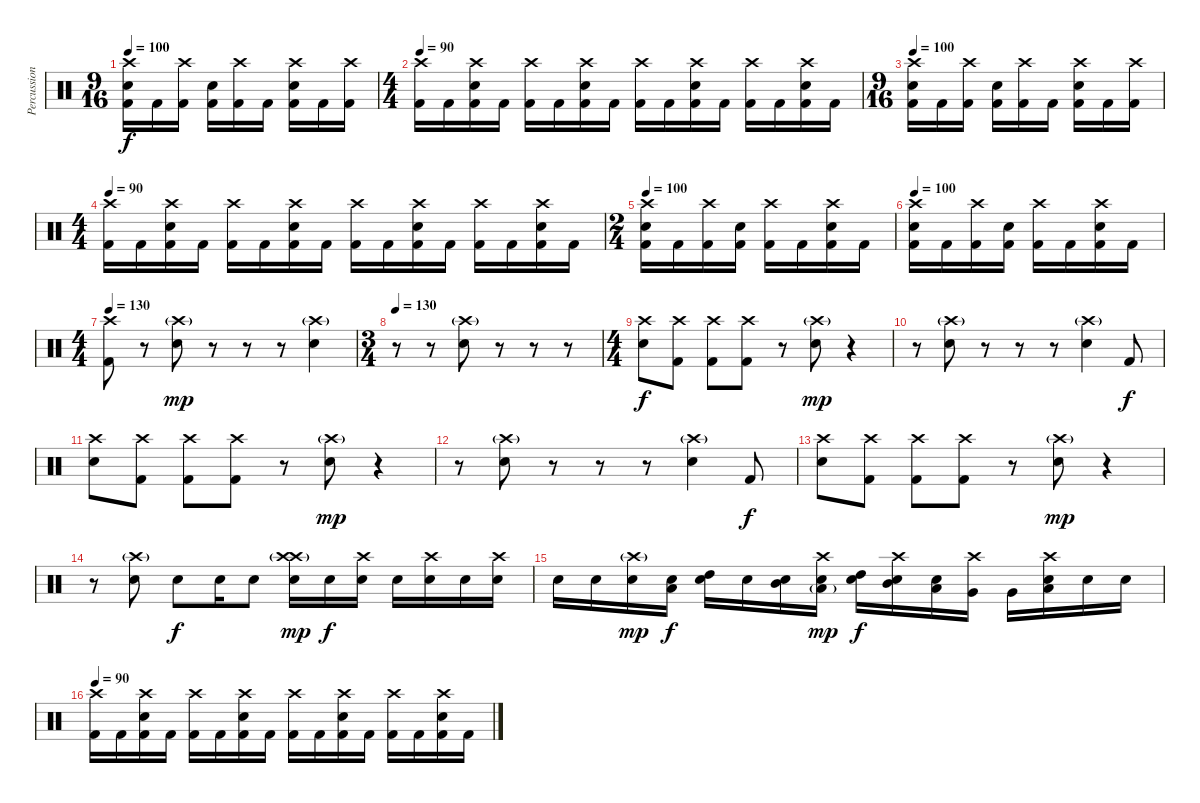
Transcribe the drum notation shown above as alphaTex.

\track ("Percussion" "Percussion") {instrument percussion}
\staff {score}
\articulation defaults
\ts (9 16)
\tempo 100
\clef neutral
\ks c
("Crash high (hit)" "Snare (hit) 2" "Kick (hit) 2").16{dy f} "Kick (hit) 2".16 ("Crash high (hit)" "Kick (hit) 2").16 ("Snare (hit) 2" "Kick (hit) 2").16 ("Crash high (hit)" "Kick (hit) 2").16 "Kick (hit) 2".16 ("Crash high (hit)" "Snare (hit) 2" "Kick (hit) 2").16 "Kick (hit) 2".16 ("Crash high (hit)" "Kick (hit) 2").16 |
\ts (4 4)
\tempo 90
("Crash high (hit)" "Kick (hit) 2").16 "Kick (hit) 2".16 ("Crash high (hit)" "Snare (hit) 2" "Kick (hit) 2").16 "Kick (hit) 2".16 ("Crash high (hit)" "Kick (hit) 2").16 "Kick (hit) 2".16 ("Crash high (hit)" "Snare (hit) 2" "Kick (hit) 2").16 "Kick (hit) 2".16 ("Crash high (hit)" "Kick (hit) 2").16 "Kick (hit) 2".16 ("Crash high (hit)" "Snare (hit) 2" "Kick (hit) 2").16 "Kick (hit) 2".16 ("Crash high (hit)" "Kick (hit) 2").16 "Kick (hit) 2".16 ("Crash high (hit)" "Snare (hit) 2" "Kick (hit) 2").16 "Kick (hit) 2".16 |
\ts (9 16)
\tempo 100
("Crash high (hit)" "Snare (hit) 2" "Kick (hit) 2").16 "Kick (hit) 2".16 ("Crash high (hit)" "Kick (hit) 2").16 ("Snare (hit) 2" "Kick (hit) 2").16 ("Crash high (hit)" "Kick (hit) 2").16 "Kick (hit) 2".16 ("Crash high (hit)" "Snare (hit) 2" "Kick (hit) 2").16 "Kick (hit) 2".16 ("Crash high (hit)" "Kick (hit) 2").16 |
\ts (4 4)
\tempo 90
("Crash high (hit)" "Kick (hit) 2").16 "Kick (hit) 2".16 ("Crash high (hit)" "Snare (hit) 2" "Kick (hit) 2").16 "Kick (hit) 2".16 ("Crash high (hit)" "Kick (hit) 2").16 "Kick (hit) 2".16 ("Crash high (hit)" "Snare (hit) 2" "Kick (hit) 2").16 "Kick (hit) 2".16 ("Crash high (hit)" "Kick (hit) 2").16 "Kick (hit) 2".16 ("Crash high (hit)" "Snare (hit) 2" "Kick (hit) 2").16 "Kick (hit) 2".16 ("Crash high (hit)" "Kick (hit) 2").16 "Kick (hit) 2".16 ("Crash high (hit)" "Snare (hit) 2" "Kick (hit) 2").16 "Kick (hit) 2".16 |
\ts (2 4)
\tempo 100
("Crash high (hit)" "Snare (hit) 2" "Kick (hit) 2").16 "Kick (hit) 2".16 ("Crash high (hit)" "Kick (hit) 2").16 ("Snare (hit) 2" "Kick (hit) 2").16 ("Crash high (hit)" "Kick (hit) 2").16 "Kick (hit) 2".16 ("Crash high (hit)" "Snare (hit) 2" "Kick (hit) 2").16 "Kick (hit) 2".16 |
\tempo 100
("Crash high (hit)" "Snare (hit) 2" "Kick (hit) 2").16 "Kick (hit) 2".16 ("Crash high (hit)" "Kick (hit) 2").16 ("Snare (hit) 2" "Kick (hit) 2").16 ("Crash high (hit)" "Kick (hit) 2").16 "Kick (hit) 2".16 ("Crash high (hit)" "Snare (hit) 2" "Kick (hit) 2").16 "Kick (hit) 2".16 |
\ts (4 4)
\tempo 130
("Crash high (hit)" "Kick (hit) 2").8 r.8 ("Snare (hit) 2" "Crash high (hit)"{g}).8{dy mp} r.8 r.8 r.8 ("Snare (hit) 2" "Crash high (hit)"{g}).4 |
\ts (3 4)
\tempo 130
r.8 r.8 ("Snare (hit) 2" "Crash high (hit)"{g}).8 r.8 r.8 r.8 |
\ts (4 4)
("Crash high (hit)" "Snare (hit) 2").8{dy f} ("Crash high (hit)" "Kick (hit) 2").8 ("Crash high (hit)" "Kick (hit) 2").8 ("Crash high (hit)" "Kick (hit) 2").8 r.8 ("Crash high (hit)"{g} "Snare (hit) 2").8{dy mp} r.4 |
r.8 ("Crash high (hit)"{g} "Snare (hit) 2").8 r.8 r.8 r.8 ("Crash high (hit)"{g} "Snare (hit) 2").4 "Kick (hit) 2".8{dy f} |
("Crash high (hit)" "Snare (hit) 2").8 ("Crash high (hit)" "Kick (hit) 2").8 ("Crash high (hit)" "Kick (hit) 2").8 ("Crash high (hit)" "Kick (hit) 2").8 r.8 ("Crash high (hit)"{g} "Snare (hit) 2").8{dy mp} r.4 |
r.8 ("Crash high (hit)"{g} "Snare (hit) 2").8 r.8 r.8 r.8 ("Crash high (hit)"{g} "Snare (hit) 2").4 "Kick (hit) 2".8{dy f} |
("Crash high (hit)" "Snare (hit) 2").8 ("Crash high (hit)" "Kick (hit) 2").8 ("Crash high (hit)" "Kick (hit) 2").8 ("Crash high (hit)" "Kick (hit) 2").8 r.8 ("Crash high (hit)"{g} "Snare (hit) 2").8{dy mp} r.4 |
r.8 ("Crash high (hit)"{g} "Snare (hit) 2").8 "Snare (hit) 2".8{dy f} "Snare (hit) 2".16 "Snare (hit) 2".8 ("Crash high (hit)" "Crash high (hit)"{g} "Snare (hit) 2").16{dy mp} "Snare (hit) 2".16{dy f} ("Crash high (hit)" "Snare (hit) 2").16 "Snare (hit) 2".16 ("Crash high (hit)" "Snare (hit) 2").16 "Snare (hit) 2".16 ("Crash high (hit)" "Snare (hit) 2").16 |
"Snare (hit) 2".16 "Snare (hit) 2".16 ("Crash high (hit)"{g} "Snare (hit) 2").16{dy mp} ("Snare (hit) 2" "Low Tom (hit)").16{dy f} ("High Tom (hit)" "Snare (hit) 2").16 "Snare (hit) 2".16 ("Mid Tom (hit)" "Snare (hit) 2").16 ("Crash high (hit)" "Low Tom (hit)"{g} "Snare (hit) 2").16{dy mp} ("High Tom (hit)" "Snare (hit) 2").16{dy f} ("Crash high (hit)" "Mid Tom (hit)" "Snare (hit) 2").16 ("Low Tom (hit)" "Snare (hit) 2").16 ("Crash high (hit)" "Very Low Tom (hit)").16 "Very Low Tom (hit)".16 ("Crash high (hit)" "Low Tom (hit)" "Snare (hit) 2").16 "Snare (hit) 2".16 "Snare (hit) 2".16 |
\tempo 90
("Crash high (hit)" "Kick (hit) 2").16 "Kick (hit) 2".16 ("Crash high (hit)" "Snare (hit) 2" "Kick (hit) 2").16 "Kick (hit) 2".16 ("Crash high (hit)" "Kick (hit) 2").16 "Kick (hit) 2".16 ("Crash high (hit)" "Snare (hit) 2" "Kick (hit) 2").16 "Kick (hit) 2".16 ("Crash high (hit)" "Kick (hit) 2").16 "Kick (hit) 2".16 ("Crash high (hit)" "Snare (hit) 2" "Kick (hit) 2").16 "Kick (hit) 2".16 ("Crash high (hit)" "Kick (hit) 2").16 "Kick (hit) 2".16 ("Crash high (hit)" "Snare (hit) 2" "Kick (hit) 2").16 "Kick (hit) 2".16
